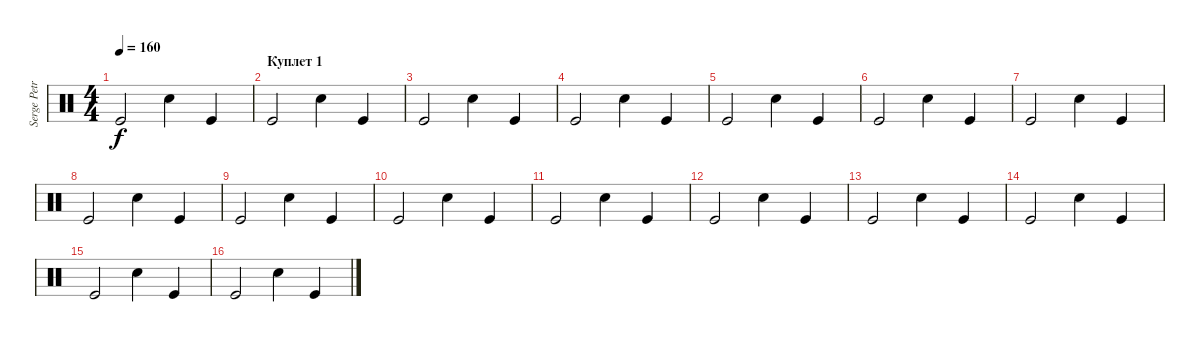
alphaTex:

\track ("Serge Petrone" "Serge Petr") {instrument percussion}
\staff {score}
\articulation defaults
\ts (4 4)
\tempo 160
\clef neutral
\ks c "Kick (hit)".2{dy f} "Snare (hit) 2".4 "Kick (hit)".4
|
\section ("" "Куплет 1")
"Kick (hit)".2 "Snare (hit) 2".4 "Kick (hit)".4 |
"Kick (hit)".2 "Snare (hit) 2".4 "Kick (hit)".4 |
"Kick (hit)".2 "Snare (hit) 2".4 "Kick (hit)".4 |
"Kick (hit)".2 "Snare (hit) 2".4 "Kick (hit)".4 |
"Kick (hit)".2 "Snare (hit) 2".4 "Kick (hit)".4 |
"Kick (hit)".2 "Snare (hit) 2".4 "Kick (hit)".4 |
"Kick (hit)".2 "Snare (hit) 2".4 "Kick (hit)".4 |
"Kick (hit)".2 "Snare (hit) 2".4 "Kick (hit)".4 |
"Kick (hit)".2 "Snare (hit) 2".4 "Kick (hit)".4 |
"Kick (hit)".2 "Snare (hit) 2".4 "Kick (hit)".4 |
"Kick (hit)".2 "Snare (hit) 2".4 "Kick (hit)".4 |
"Kick (hit)".2 "Snare (hit) 2".4 "Kick (hit)".4 |
"Kick (hit)".2 "Snare (hit) 2".4 "Kick (hit)".4 |
"Kick (hit)".2 "Snare (hit) 2".4 "Kick (hit)".4 |
"Kick (hit)".2 "Snare (hit) 2".4 "Kick (hit)".4
